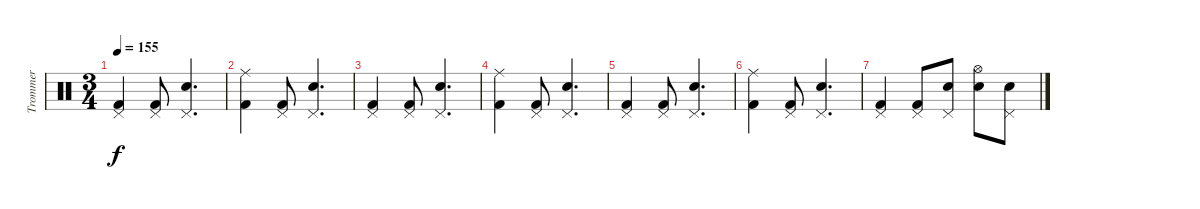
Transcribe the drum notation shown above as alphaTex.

\track ("Trommer" "Trommer") {instrument percussion}
\staff {score}
\articulation defaults
\ts (3 4)
\tempo 155
\clef neutral
\ks c
("Kick (hit) 2" "Pedal Hi-Hat (hit)").4{dy f} ("Kick (hit) 2" "Pedal Hi-Hat (hit)").8 ("Snare (hit) 2" "Pedal Hi-Hat (hit)").4{d} |
("Kick (hit) 2" "Ride (middle)").4 ("Kick (hit) 2" "Pedal Hi-Hat (hit)").8 ("Snare (hit) 2" "Pedal Hi-Hat (hit)").4{d} |
("Kick (hit) 2" "Pedal Hi-Hat (hit)").4 ("Kick (hit) 2" "Pedal Hi-Hat (hit)").8 ("Snare (hit) 2" "Pedal Hi-Hat (hit)").4{d} |
("Kick (hit) 2" "Ride (middle)").4 ("Kick (hit) 2" "Pedal Hi-Hat (hit)").8 ("Snare (hit) 2" "Pedal Hi-Hat (hit)").4{d} |
("Kick (hit) 2" "Pedal Hi-Hat (hit)").4 ("Kick (hit) 2" "Pedal Hi-Hat (hit)").8 ("Snare (hit) 2" "Pedal Hi-Hat (hit)").4{d} |
("Kick (hit) 2" "Ride (middle)").4 ("Kick (hit) 2" "Pedal Hi-Hat (hit)").8 ("Snare (hit) 2" "Pedal Hi-Hat (hit)").4{d} |
("Kick (hit) 2" "Pedal Hi-Hat (hit)").4 ("Kick (hit) 2" "Pedal Hi-Hat (hit)").8 ("Snare (hit) 2" "Pedal Hi-Hat (hit)").8 ("Snare (hit) 2" "Hi-Hat (open)").8 ("Snare (hit) 2" "Pedal Hi-Hat (hit)").8
